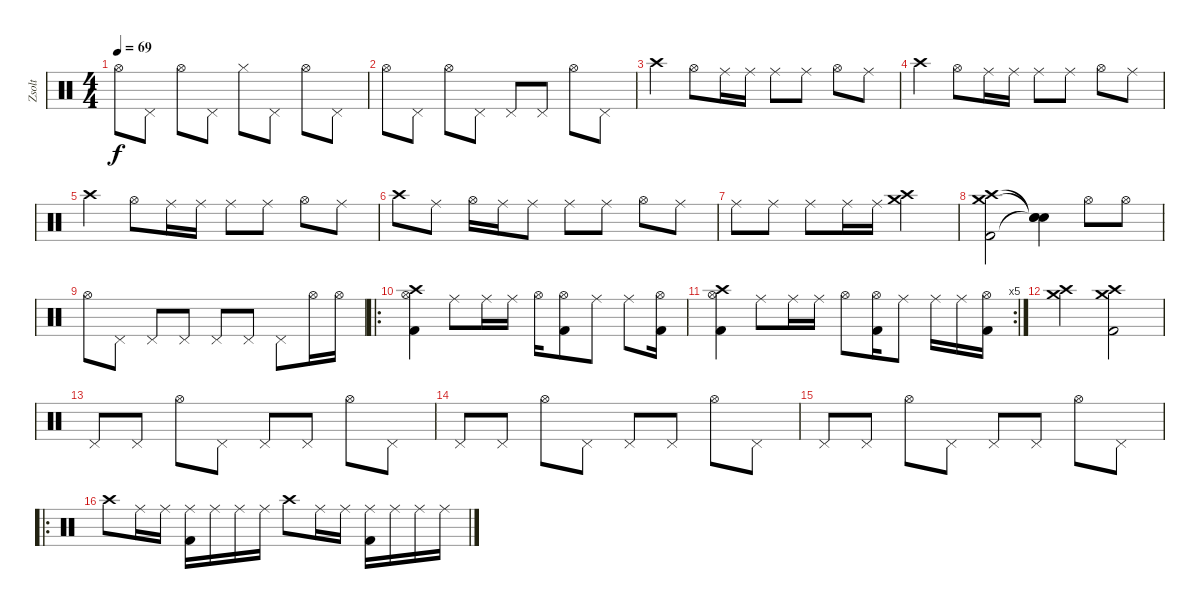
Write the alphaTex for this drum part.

\track ("Zsolt" "Zsolt") {instrument percussion}
\staff {score}
\articulation defaults
\ts (4 4)
\tempo 69
\clef neutral
\ks c "Hi-Hat (open)".8{dy f} "Pedal Hi-Hat (hit)".8 "Hi-Hat (open)".8 "Pedal Hi-Hat (hit)".8 "Hi-Hat (closed)".8 "Pedal Hi-Hat (hit)".8 "Hi-Hat (open)".8 "Pedal Hi-Hat (hit)".8
|
"Hi-Hat (open)".8 "Pedal Hi-Hat (hit)".8 "Hi-Hat (open)".8 "Pedal Hi-Hat (hit)".8 "Pedal Hi-Hat (hit)".8 "Pedal Hi-Hat (hit)".8 "Hi-Hat (open)".8 "Pedal Hi-Hat (hit)".8 |
"Crash high (hit)".4 "Hi-Hat (open)".8 "Ride (middle)".16 "Ride (middle)".16 "Ride (middle)".8 "Ride (middle)".8 "Hi-Hat (open)".8 "Ride (middle)".8 |
"Crash high (hit)".4 "Hi-Hat (open)".8 "Ride (middle)".16 "Ride (middle)".16 "Ride (middle)".8 "Ride (middle)".8 "Hi-Hat (open)".8 "Ride (middle)".8 |
"Crash high (hit)".4 "Hi-Hat (open)".8 "Ride (middle)".16 "Ride (middle)".16 "Ride (middle)".8 "Ride (middle)".8 "Hi-Hat (open)".8 "Ride (middle)".8 |
"Crash high (hit)".8 "Ride (middle)".8 "Hi-Hat (open)".16 "Ride (middle)".16 "Ride (middle)".8 "Ride (middle)".8 "Ride (middle)".8 "Hi-Hat (open)".8 "Ride (middle)".8 |
"Ride (middle)".8 "Ride (middle)".8 "Ride (middle)".8 "Ride (middle)".16 "Ride (middle)".16 ("Crash high (hit)" "Crash medium (hit)").2 |
("Crash high (hit)" "Crash medium (hit)" "Kick (hit) 2").2 ("Snare (hit)"{t} "Snare (hit)"{t} "Snare (hit)"{t}).4 "Hi-Hat (open)".8 "Hi-Hat (open)".8 |
"Hi-Hat (open)".8 "Pedal Hi-Hat (hit)".8 "Pedal Hi-Hat (hit)".8 "Pedal Hi-Hat (hit)".8 "Pedal Hi-Hat (hit)".8 "Pedal Hi-Hat (hit)".8 "Pedal Hi-Hat (hit)".8 "Hi-Hat (open)".16 "Hi-Hat (open)".16 |
\ro
("Crash high (hit)" "Hi-Hat (open)" "Kick (hit) 2").4 "Ride (middle)".8 "Ride (middle)".16 "Ride (middle)".16 "Hi-Hat (open)".16 ("Hi-Hat (open)" "Kick (hit) 2").8 "Ride (middle)".8 "Ride (middle)".8 ("Hi-Hat (open)" "Kick (hit) 2").16 |
\rc 5
("Crash high (hit)" "Hi-Hat (open)" "Kick (hit) 2").4 "Ride (middle)".8 "Ride (middle)".16 "Ride (middle)".16 "Hi-Hat (open)".8 ("Hi-Hat (open)" "Kick (hit) 2").16 "Ride (middle)".8 "Ride (middle)".16 "Ride (middle)".16 ("Hi-Hat (open)" "Kick (hit) 2").16 |
("Crash high (hit)" "Crash medium (hit)").2 ("Crash high (hit)" "Crash medium (hit)" "Kick (hit) 2").2 |
"Pedal Hi-Hat (hit)".8 "Pedal Hi-Hat (hit)".8 "Hi-Hat (open)".8 "Pedal Hi-Hat (hit)".8 "Pedal Hi-Hat (hit)".8 "Pedal Hi-Hat (hit)".8 "Hi-Hat (open)".8 "Pedal Hi-Hat (hit)".8 |
"Pedal Hi-Hat (hit)".8 "Pedal Hi-Hat (hit)".8 "Hi-Hat (open)".8 "Pedal Hi-Hat (hit)".8 "Pedal Hi-Hat (hit)".8 "Pedal Hi-Hat (hit)".8 "Hi-Hat (open)".8 "Pedal Hi-Hat (hit)".8 |
"Pedal Hi-Hat (hit)".8 "Pedal Hi-Hat (hit)".8 "Hi-Hat (open)".8 "Pedal Hi-Hat (hit)".8 "Pedal Hi-Hat (hit)".8 "Pedal Hi-Hat (hit)".8 "Hi-Hat (open)".8 "Pedal Hi-Hat (hit)".8 |
\ro "Crash high (hit)".8 "Ride (middle)".16 "Ride (middle)".16
("Ride (middle)" "Kick (hit) 2").16 "Ride (middle)".16 "Ride (middle)".16 "Ride (middle)".16 "Crash high (hit)".8 "Ride (middle)".16 "Ride (middle)".16 ("Ride (middle)" "Kick (hit) 2").16 "Ride (middle)".16 "Ride (middle)".16 "Ride (middle)".16
